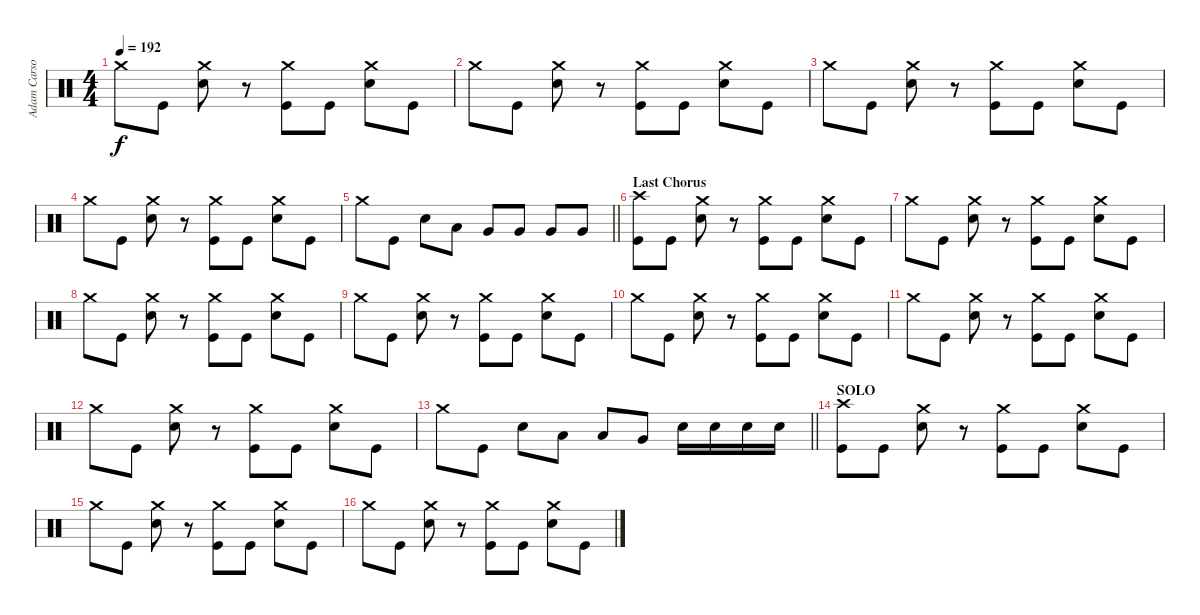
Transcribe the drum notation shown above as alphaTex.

\track ("Adam Carson" "Adam Carso") {instrument percussion}
\staff {score}
\articulation defaults
\ts (4 4)
\tempo 192
\clef neutral
\ks c "Crash medium (hit)".8{dy f} "Kick (hit)".8
("Crash medium (hit)" "Electric Snare (hit)").8 r.8 ("Crash medium (hit)" "Kick (hit)").8 "Kick (hit)".8 ("Crash medium (hit)" "Electric Snare (hit)").8 "Kick (hit)".8 |
"Crash medium (hit)".8 "Kick (hit)".8 ("Crash medium (hit)" "Electric Snare (hit)").8 r.8 ("Crash medium (hit)" "Kick (hit)").8 "Kick (hit)".8 ("Crash medium (hit)" "Electric Snare (hit)").8 "Kick (hit)".8 |
"Crash medium (hit)".8 "Kick (hit)".8 ("Crash medium (hit)" "Electric Snare (hit)").8 r.8 ("Crash medium (hit)" "Kick (hit)").8 "Kick (hit)".8 ("Crash medium (hit)" "Electric Snare (hit)").8 "Kick (hit)".8 |
"Crash medium (hit)".8 "Kick (hit)".8 ("Crash medium (hit)" "Electric Snare (hit)").8 r.8 ("Crash medium (hit)" "Kick (hit)").8 "Kick (hit)".8 ("Crash medium (hit)" "Electric Snare (hit)").8 "Kick (hit)".8 |
\barLineRight lightlight "Crash medium (hit)".8 "Kick (hit)".8 "Electric Snare (hit)".8 "Low Tom (hit)".8 "Very Low Tom (hit)".8 "Very Low Tom (hit)".8 "Very Low Tom (hit)".8 "Very Low Tom (hit)".8
|
\section ("" "Last Chorus")
("Crash high (hit)" "Kick (hit)").8 "Kick (hit)".8 ("Crash medium (hit)" "Electric Snare (hit)").8 r.8 ("Crash medium (hit)" "Kick (hit)").8 "Kick (hit)".8 ("Crash medium (hit)" "Electric Snare (hit)").8 "Kick (hit)".8 |
"Crash medium (hit)".8 "Kick (hit)".8 ("Crash medium (hit)" "Electric Snare (hit)").8 r.8 ("Crash medium (hit)" "Kick (hit)").8 "Kick (hit)".8 ("Crash medium (hit)" "Electric Snare (hit)").8 "Kick (hit)".8 |
"Crash medium (hit)".8 "Kick (hit)".8 ("Crash medium (hit)" "Electric Snare (hit)").8 r.8 ("Crash medium (hit)" "Kick (hit)").8 "Kick (hit)".8 ("Crash medium (hit)" "Electric Snare (hit)").8 "Kick (hit)".8 |
"Crash medium (hit)".8 "Kick (hit)".8 ("Crash medium (hit)" "Electric Snare (hit)").8 r.8 ("Crash medium (hit)" "Kick (hit)").8 "Kick (hit)".8 ("Crash medium (hit)" "Electric Snare (hit)").8 "Kick (hit)".8 |
"Crash medium (hit)".8 "Kick (hit)".8 ("Crash medium (hit)" "Electric Snare (hit)").8 r.8 ("Crash medium (hit)" "Kick (hit)").8 "Kick (hit)".8 ("Crash medium (hit)" "Electric Snare (hit)").8 "Kick (hit)".8 |
"Crash medium (hit)".8 "Kick (hit)".8 ("Crash medium (hit)" "Electric Snare (hit)").8 r.8 ("Crash medium (hit)" "Kick (hit)").8 "Kick (hit)".8 ("Crash medium (hit)" "Electric Snare (hit)").8 "Kick (hit)".8 |
"Crash medium (hit)".8 "Kick (hit)".8 ("Crash medium (hit)" "Electric Snare (hit)").8 r.8 ("Crash medium (hit)" "Kick (hit)").8 "Kick (hit)".8 ("Crash medium (hit)" "Electric Snare (hit)").8 "Kick (hit)".8 |
\barLineRight lightlight "Crash medium (hit)".8 "Kick (hit)".8 "Electric Snare (hit)".8 "Low Tom (hit)".8 "Low Tom (hit)".8 "Very Low Tom (hit)".8 "Electric Snare (hit)".16 "Electric Snare (hit)".16 "Electric Snare (hit)".16 "Electric Snare (hit)".16
|
\section ("" "SOLO")
("Crash high (hit)" "Kick (hit)").8 "Kick (hit)".8 ("Crash medium (hit)" "Electric Snare (hit)").8 r.8 ("Crash medium (hit)" "Kick (hit)").8 "Kick (hit)".8 ("Crash medium (hit)" "Electric Snare (hit)").8 "Kick (hit)".8 |
"Crash medium (hit)".8 "Kick (hit)".8 ("Crash medium (hit)" "Electric Snare (hit)").8 r.8 ("Crash medium (hit)" "Kick (hit)").8 "Kick (hit)".8 ("Crash medium (hit)" "Electric Snare (hit)").8 "Kick (hit)".8 |
"Crash medium (hit)".8 "Kick (hit)".8 ("Crash medium (hit)" "Electric Snare (hit)").8 r.8 ("Crash medium (hit)" "Kick (hit)").8 "Kick (hit)".8 ("Crash medium (hit)" "Electric Snare (hit)").8 "Kick (hit)".8
